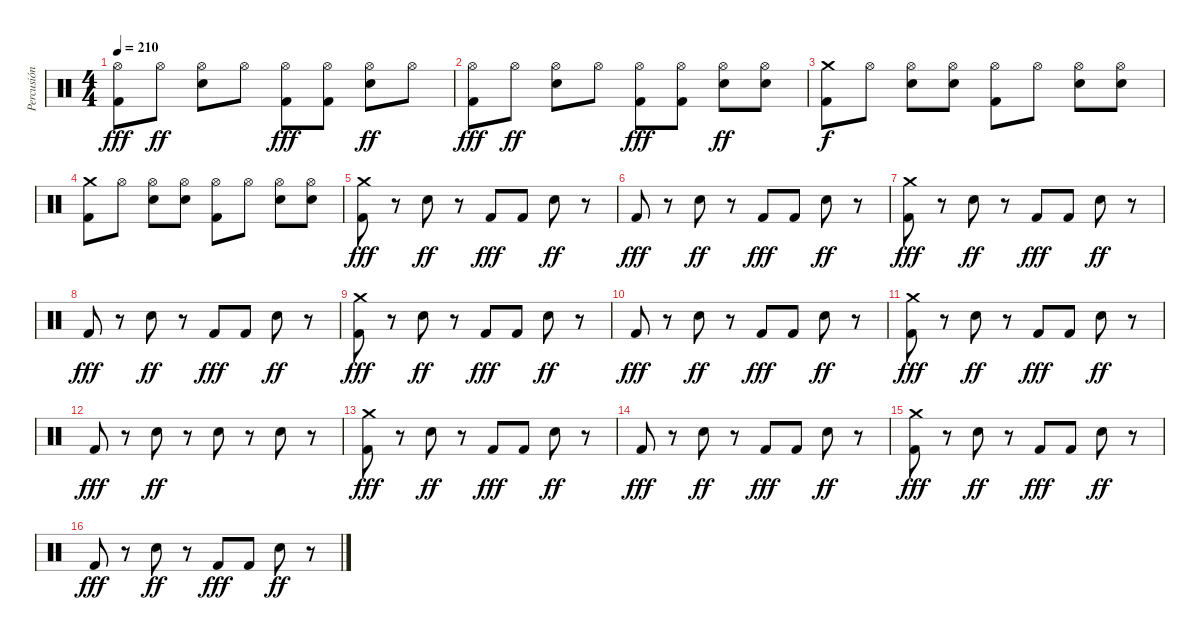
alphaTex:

\track ("Percusión" "Percusión") {instrument percussion}
\staff {score}
\articulation defaults
\ts (4 4)
\tempo 210
\clef neutral
\ks c
("Hi-Hat (open)" "Kick (hit) 2").8{dy fff} "Hi-Hat (open)".8{dy ff} ("Hi-Hat (open)" "Electric Snare (hit)").8 "Hi-Hat (open)".8 ("Hi-Hat (open)" "Kick (hit) 2").8{dy fff} ("Hi-Hat (open)" "Kick (hit) 2").8 ("Hi-Hat (open)" "Electric Snare (hit)").8{dy ff} "Hi-Hat (open)".8 |
("Hi-Hat (open)" "Kick (hit) 2").8{dy fff} "Hi-Hat (open)".8{dy ff} ("Hi-Hat (open)" "Electric Snare (hit)").8 "Hi-Hat (open)".8 ("Hi-Hat (open)" "Kick (hit) 2").8{dy fff} ("Hi-Hat (open)" "Kick (hit) 2").8 ("Hi-Hat (open)" "Electric Snare (hit)").8{dy ff} ("Hi-Hat (open)" "Electric Snare (hit)").8 |
("Crash medium (hit)" "Kick (hit) 2").8{dy f} "Hi-Hat (open)".8 ("Hi-Hat (open)" "Electric Snare (hit)").8 ("Hi-Hat (open)" "Electric Snare (hit)").8 ("Hi-Hat (open)" "Kick (hit) 2").8 "Hi-Hat (open)".8 ("Hi-Hat (open)" "Electric Snare (hit)").8 ("Hi-Hat (open)" "Electric Snare (hit)").8 |
("Crash medium (hit)" "Kick (hit) 2").8 "Hi-Hat (open)".8 ("Hi-Hat (open)" "Electric Snare (hit)").8 ("Hi-Hat (open)" "Electric Snare (hit)").8 ("Hi-Hat (open)" "Kick (hit) 2").8 "Hi-Hat (open)".8 ("Hi-Hat (open)" "Electric Snare (hit)").8 ("Hi-Hat (open)" "Electric Snare (hit)").8 |
("Crash medium (hit)" "Kick (hit) 2").8{dy fff} r.8 "Electric Snare (hit)".8{dy ff} r.8 "Kick (hit) 2".8{dy fff} "Kick (hit) 2".8 "Electric Snare (hit)".8{dy ff} r.8 |
"Kick (hit) 2".8{dy fff} r.8 "Electric Snare (hit)".8{dy ff} r.8 "Kick (hit) 2".8{dy fff} "Kick (hit) 2".8 "Electric Snare (hit)".8{dy ff} r.8 |
("Crash medium (hit)" "Kick (hit) 2").8{dy fff} r.8 "Electric Snare (hit)".8{dy ff} r.8 "Kick (hit) 2".8{dy fff} "Kick (hit) 2".8 "Electric Snare (hit)".8{dy ff} r.8 |
"Kick (hit) 2".8{dy fff} r.8 "Electric Snare (hit)".8{dy ff} r.8 "Kick (hit) 2".8{dy fff} "Kick (hit) 2".8 "Electric Snare (hit)".8{dy ff} r.8 |
("Crash medium (hit)" "Kick (hit) 2").8{dy fff} r.8 "Electric Snare (hit)".8{dy ff} r.8 "Kick (hit) 2".8{dy fff} "Kick (hit) 2".8 "Electric Snare (hit)".8{dy ff} r.8 |
"Kick (hit) 2".8{dy fff} r.8 "Electric Snare (hit)".8{dy ff} r.8 "Kick (hit) 2".8{dy fff} "Kick (hit) 2".8 "Electric Snare (hit)".8{dy ff} r.8 |
("Crash medium (hit)" "Kick (hit) 2").8{dy fff} r.8 "Electric Snare (hit)".8{dy ff} r.8 "Kick (hit) 2".8{dy fff} "Kick (hit) 2".8 "Electric Snare (hit)".8{dy ff} r.8 |
"Kick (hit) 2".8{dy fff} r.8 "Electric Snare (hit)".8{dy ff} r.8 "Electric Snare (hit)".8 r.8 "Electric Snare (hit)".8 r.8 |
("Crash medium (hit)" "Kick (hit) 2").8{dy fff} r.8 "Electric Snare (hit)".8{dy ff} r.8 "Kick (hit) 2".8{dy fff} "Kick (hit) 2".8 "Electric Snare (hit)".8{dy ff} r.8 |
"Kick (hit) 2".8{dy fff} r.8 "Electric Snare (hit)".8{dy ff} r.8 "Kick (hit) 2".8{dy fff} "Kick (hit) 2".8 "Electric Snare (hit)".8{dy ff} r.8 |
("Crash medium (hit)" "Kick (hit) 2").8{dy fff} r.8 "Electric Snare (hit)".8{dy ff} r.8 "Kick (hit) 2".8{dy fff} "Kick (hit) 2".8 "Electric Snare (hit)".8{dy ff} r.8 |
"Kick (hit) 2".8{dy fff} r.8 "Electric Snare (hit)".8{dy ff} r.8 "Kick (hit) 2".8{dy fff} "Kick (hit) 2".8 "Electric Snare (hit)".8{dy ff} r.8
